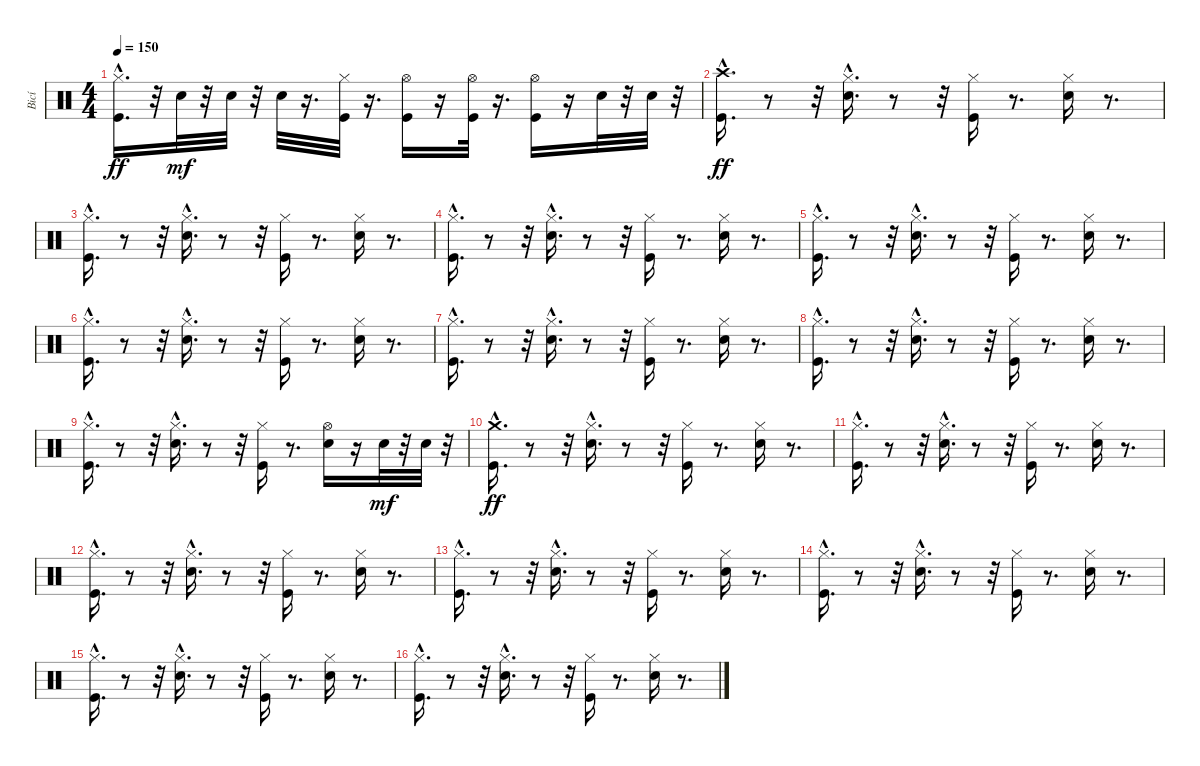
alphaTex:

\track ("Bicí" "Bicí") {instrument percussion}
\staff {score}
\articulation defaults
\ts (4 4)
\tempo 150
\clef neutral
\ks c
("Hi-Hat (closed)"{hac} "Kick (hit)").16{d dy ff} r.32 "Snare (hit) 2".32{dy mf} r.32 "Snare (hit) 2".32 r.32 "Snare (hit) 2".32 r.16{d} ("Kick (hit)" "Hi-Hat (closed)").32 r.16{d} ("Hi-Hat (open)" "Kick (hit)").16 r.16 ("Kick (hit)" "Hi-Hat (open)").32 r.16{d} ("Hi-Hat (open)" "Kick (hit)").16 r.16 "Snare (hit) 2".32 r.32 "Snare (hit) 2".32 r.32 |
("Crash high (hit)"{hac} "Kick (hit)").16{d dy ff} r.8 r.32 ("Hi-Hat (closed)"{hac} "Snare (hit) 2").16{d} r.8 r.32 ("Kick (hit)" "Hi-Hat (closed)").16 r.8{d} ("Snare (hit) 2" "Hi-Hat (closed)").16 r.8{d} |
("Hi-Hat (closed)"{hac} "Kick (hit)").16{d} r.8 r.32 ("Hi-Hat (closed)"{hac} "Snare (hit) 2").16{d} r.8 r.32 ("Kick (hit)" "Hi-Hat (closed)").16 r.8{d} ("Snare (hit) 2" "Hi-Hat (closed)").16 r.8{d} |
("Hi-Hat (closed)"{hac} "Kick (hit)").16{d} r.8 r.32 ("Hi-Hat (closed)"{hac} "Snare (hit) 2").16{d} r.8 r.32 ("Kick (hit)" "Hi-Hat (closed)").16 r.8{d} ("Snare (hit) 2" "Hi-Hat (closed)").16 r.8{d} |
("Hi-Hat (closed)"{hac} "Kick (hit)").16{d} r.8 r.32 ("Hi-Hat (closed)"{hac} "Snare (hit) 2").16{d} r.8 r.32 ("Kick (hit)" "Hi-Hat (closed)").16 r.8{d} ("Snare (hit) 2" "Hi-Hat (closed)").16 r.8{d} |
("Hi-Hat (closed)"{hac} "Kick (hit)").16{d} r.8 r.32 ("Hi-Hat (closed)"{hac} "Snare (hit) 2").16{d} r.8 r.32 ("Kick (hit)" "Hi-Hat (closed)").16 r.8{d} ("Snare (hit) 2" "Hi-Hat (closed)").16 r.8{d} |
("Hi-Hat (closed)"{hac} "Kick (hit)").16{d} r.8 r.32 ("Hi-Hat (closed)"{hac} "Snare (hit) 2").16{d} r.8 r.32 ("Kick (hit)" "Hi-Hat (closed)").16 r.8{d} ("Snare (hit) 2" "Hi-Hat (closed)").16 r.8{d} |
("Hi-Hat (closed)"{hac} "Kick (hit)").16{d} r.8 r.32 ("Hi-Hat (closed)"{hac} "Snare (hit) 2").16{d} r.8 r.32 ("Kick (hit)" "Hi-Hat (closed)").16 r.8{d} ("Snare (hit) 2" "Hi-Hat (closed)").16 r.8{d} |
("Hi-Hat (closed)"{hac} "Kick (hit)").16{d} r.8 r.32 ("Hi-Hat (closed)"{hac} "Snare (hit) 2").16{d} r.8 r.32 ("Kick (hit)" "Hi-Hat (closed)").16 r.8{d} ("Snare (hit) 2" "Hi-Hat (open)").16 r.16 "Snare (hit) 2".32{dy mf} r.32 "Snare (hit) 2".32 r.32 |
("Crash medium (hit)"{hac} "Kick (hit)").16{d dy ff} r.8 r.32 ("Hi-Hat (closed)"{hac} "Snare (hit) 2").16{d} r.8 r.32 ("Kick (hit)" "Hi-Hat (closed)").16 r.8{d} ("Snare (hit) 2" "Hi-Hat (closed)").16 r.8{d} |
("Hi-Hat (closed)"{hac} "Kick (hit)").16{d} r.8 r.32 ("Hi-Hat (closed)"{hac} "Snare (hit) 2").16{d} r.8 r.32 ("Kick (hit)" "Hi-Hat (closed)").16 r.8{d} ("Snare (hit) 2" "Hi-Hat (closed)").16 r.8{d} |
("Hi-Hat (closed)"{hac} "Kick (hit)").16{d} r.8 r.32 ("Hi-Hat (closed)"{hac} "Snare (hit) 2").16{d} r.8 r.32 ("Kick (hit)" "Hi-Hat (closed)").16 r.8{d} ("Snare (hit) 2" "Hi-Hat (closed)").16 r.8{d} |
("Hi-Hat (closed)"{hac} "Kick (hit)").16{d} r.8 r.32 ("Hi-Hat (closed)"{hac} "Snare (hit) 2").16{d} r.8 r.32 ("Kick (hit)" "Hi-Hat (closed)").16 r.8{d} ("Snare (hit) 2" "Hi-Hat (closed)").16 r.8{d} |
("Hi-Hat (closed)"{hac} "Kick (hit)").16{d} r.8 r.32 ("Hi-Hat (closed)"{hac} "Snare (hit) 2").16{d} r.8 r.32 ("Kick (hit)" "Hi-Hat (closed)").16 r.8{d} ("Snare (hit) 2" "Hi-Hat (closed)").16 r.8{d} |
("Hi-Hat (closed)"{hac} "Kick (hit)").16{d} r.8 r.32 ("Hi-Hat (closed)"{hac} "Snare (hit) 2").16{d} r.8 r.32 ("Kick (hit)" "Hi-Hat (closed)").16 r.8{d} ("Snare (hit) 2" "Hi-Hat (closed)").16 r.8{d} |
("Hi-Hat (closed)"{hac} "Kick (hit)").16{d} r.8 r.32 ("Hi-Hat (closed)"{hac} "Snare (hit) 2").16{d} r.8 r.32 ("Kick (hit)" "Hi-Hat (closed)").16 r.8{d} ("Snare (hit) 2" "Hi-Hat (closed)").16 r.8{d}
